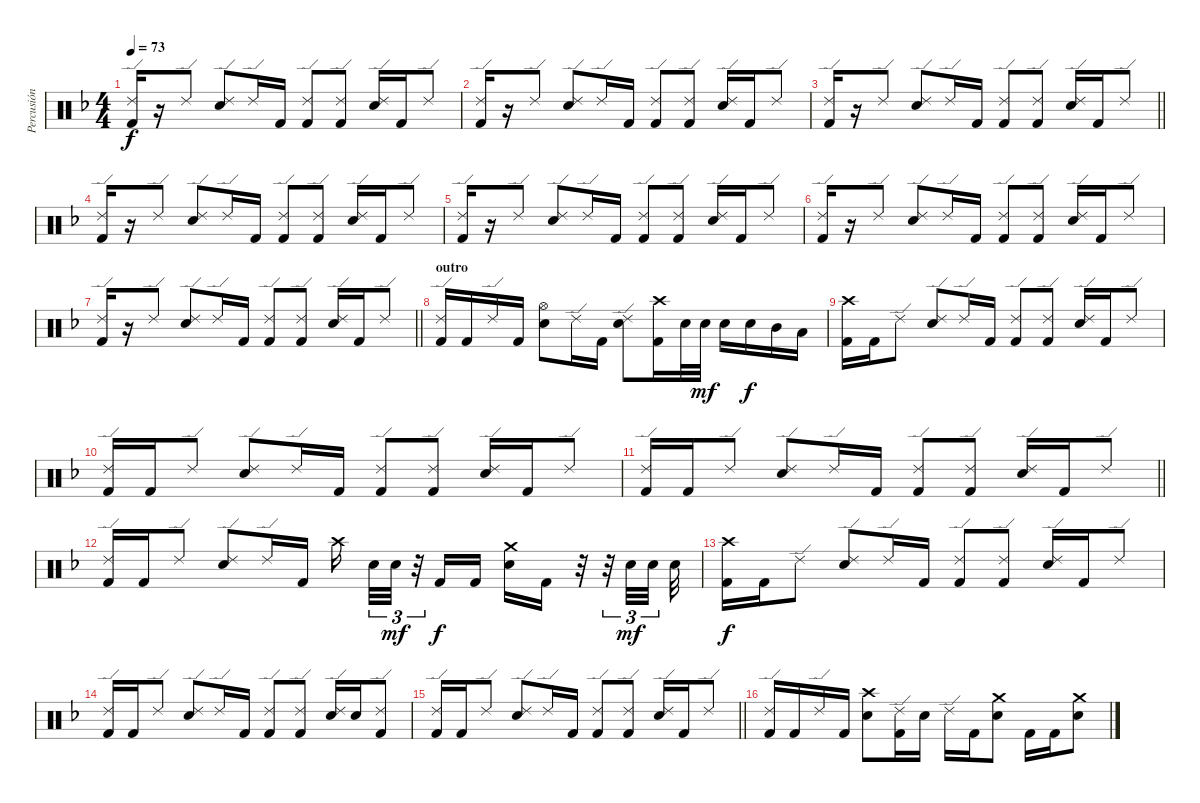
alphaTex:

\track ("Percusión" "Percusión") {instrument percussion}
\staff {score}
\articulation defaults
\ts (4 4)
\tempo 73
\clef neutral
\ks f
("Ride (edge) 2" "Kick (hit) 2").16{dy f} r.16 "Ride (edge) 2".8 ("Ride (edge) 2" "Snare (hit) 2").8 "Ride (edge) 2".16 "Kick (hit) 2".16 ("Ride (edge) 2" "Kick (hit) 2").8 ("Ride (edge) 2" "Kick (hit) 2").8 ("Ride (edge) 2" "Snare (hit) 2").16 "Kick (hit) 2".16 "Ride (edge) 2".8 |
("Ride (edge) 2" "Kick (hit) 2").16 r.16 "Ride (edge) 2".8 ("Ride (edge) 2" "Snare (hit) 2").8 "Ride (edge) 2".16 "Kick (hit) 2".16 ("Ride (edge) 2" "Kick (hit) 2").8 ("Ride (edge) 2" "Kick (hit) 2").8 ("Ride (edge) 2" "Snare (hit) 2").16 "Kick (hit) 2".16 "Ride (edge) 2".8 |
\barLineRight lightlight
("Ride (edge) 2" "Kick (hit) 2").16 r.16 "Ride (edge) 2".8 ("Ride (edge) 2" "Snare (hit) 2").8 "Ride (edge) 2".16 "Kick (hit) 2".16 ("Ride (edge) 2" "Kick (hit) 2").8 ("Ride (edge) 2" "Kick (hit) 2").8 ("Ride (edge) 2" "Snare (hit) 2").16 "Kick (hit) 2".16 "Ride (edge) 2".8 |
("Ride (edge) 2" "Kick (hit) 2").16 r.16 "Ride (edge) 2".8 ("Ride (edge) 2" "Snare (hit) 2").8 "Ride (edge) 2".16 "Kick (hit) 2".16 ("Ride (edge) 2" "Kick (hit) 2").8 ("Ride (edge) 2" "Kick (hit) 2").8 ("Ride (edge) 2" "Snare (hit) 2").16 "Kick (hit) 2".16 "Ride (edge) 2".8 |
("Ride (edge) 2" "Kick (hit) 2").16 r.16 "Ride (edge) 2".8 ("Ride (edge) 2" "Snare (hit) 2").8 "Ride (edge) 2".16 "Kick (hit) 2".16 ("Ride (edge) 2" "Kick (hit) 2").8 ("Ride (edge) 2" "Kick (hit) 2").8 ("Ride (edge) 2" "Snare (hit) 2").16 "Kick (hit) 2".16 "Ride (edge) 2".8 |
("Ride (edge) 2" "Kick (hit) 2").16 r.16 "Ride (edge) 2".8 ("Ride (edge) 2" "Snare (hit) 2").8 "Ride (edge) 2".16 "Kick (hit) 2".16 ("Ride (edge) 2" "Kick (hit) 2").8 ("Ride (edge) 2" "Kick (hit) 2").8 ("Ride (edge) 2" "Snare (hit) 2").16 "Kick (hit) 2".16 "Ride (edge) 2".8 |
\barLineRight lightlight
("Ride (edge) 2" "Kick (hit) 2").16 r.16 "Ride (edge) 2".8 ("Ride (edge) 2" "Snare (hit) 2").8 "Ride (edge) 2".16 "Kick (hit) 2".16 ("Ride (edge) 2" "Kick (hit) 2").8 ("Ride (edge) 2" "Kick (hit) 2").8 ("Ride (edge) 2" "Snare (hit) 2").16 "Kick (hit) 2".16 "Ride (edge) 2".8 |
\section ("" "outro")
("Ride (edge) 2" "Kick (hit) 2").16 "Kick (hit) 2".16 "Ride (edge) 2".16 "Kick (hit) 2".16 ("Hi-Hat (open)" "Snare (hit) 2").8 "Ride (edge) 2".16 "Kick (hit) 2".16 ("Ride (edge) 2" "Snare (hit) 2").8 ("Crash high (hit)" "Kick (hit) 2").16 "Snare (hit) 2".32 "Snare (hit) 2".32{dy mf} "Snare (hit) 2".16 "Snare (hit) 2".16{dy f} "Mid Tom (hit)".16 "Low Tom (hit)".16 |
("Crash high (hit)" "Kick (hit) 2").16 "Kick (hit) 2".16 "Ride (edge) 2".8 ("Ride (edge) 2" "Snare (hit) 2").8 "Ride (edge) 2".16 "Kick (hit) 2".16 ("Ride (edge) 2" "Kick (hit) 2").8 ("Ride (edge) 2" "Kick (hit) 2").8 ("Ride (edge) 2" "Snare (hit) 2").16 "Kick (hit) 2".16 "Ride (edge) 2".8 |
("Ride (edge) 2" "Kick (hit) 2").16 "Kick (hit) 2".16 "Ride (edge) 2".8 ("Ride (edge) 2" "Snare (hit) 2").8 "Ride (edge) 2".16 "Kick (hit) 2".16 ("Ride (edge) 2" "Kick (hit) 2").8 ("Ride (edge) 2" "Kick (hit) 2").8 ("Ride (edge) 2" "Snare (hit) 2").16 "Kick (hit) 2".16 "Ride (edge) 2".8 |
\barLineRight lightlight
("Ride (edge) 2" "Kick (hit) 2").16 "Kick (hit) 2".16 "Ride (edge) 2".8 ("Ride (edge) 2" "Snare (hit) 2").8 "Ride (edge) 2".16 "Kick (hit) 2".16 ("Ride (edge) 2" "Kick (hit) 2").8 ("Ride (edge) 2" "Kick (hit) 2").8 ("Ride (edge) 2" "Snare (hit) 2").16 "Kick (hit) 2".16 "Ride (edge) 2".8 |
("Ride (edge) 2" "Kick (hit) 2").16 "Kick (hit) 2".16 "Ride (edge) 2".8 ("Ride (edge) 2" "Snare (hit) 2").8 "Ride (edge) 2".16 "Kick (hit) 2".16 "Crash high (hit)".16{beam splitsecondary} "Snare (hit) 2".32{tu (3 2)} "Snare (hit) 2".32{tu (3 2) dy mf} r.32{tu (3 2)} "Kick (hit) 2".16{dy f} "Kick (hit) 2".16 ("Crash medium (hit)" "Snare (hit) 2").16 "Kick (hit) 2".16 r.32 r.32{tu (3 2)} "Snare (hit) 2".32{tu (3 2) dy mf} "Snare (hit) 2".32{tu (3 2) beam splitsecondary} "Snare (hit) 2".32 |
("Crash high (hit)" "Kick (hit) 2").16{dy f} "Kick (hit) 2".16 "Ride (edge) 2".8 ("Ride (edge) 2" "Snare (hit) 2").8 "Ride (edge) 2".16 "Kick (hit) 2".16 ("Ride (edge) 2" "Kick (hit) 2").8 ("Ride (edge) 2" "Kick (hit) 2").8 ("Ride (edge) 2" "Snare (hit) 2").16 "Kick (hit) 2".16 "Ride (edge) 2".8 |
("Ride (edge) 2" "Kick (hit) 2").16 "Kick (hit) 2".16 "Ride (edge) 2".8 ("Ride (edge) 2" "Snare (hit) 2").8 "Ride (edge) 2".16 "Kick (hit) 2".16 ("Ride (edge) 2" "Kick (hit) 2").8 ("Ride (edge) 2" "Kick (hit) 2").8 ("Ride (edge) 2" "Snare (hit) 2").16 "Snare (hit) 2".16 ("Ride (edge) 2" "Kick (hit) 2").8 |
\barLineRight lightlight
("Ride (edge) 2" "Kick (hit) 2").16 "Kick (hit) 2".16 "Ride (edge) 2".8 ("Ride (edge) 2" "Snare (hit) 2").8 "Ride (edge) 2".16 "Kick (hit) 2".16 ("Ride (edge) 2" "Kick (hit) 2").8 ("Ride (edge) 2" "Kick (hit) 2").8 ("Ride (edge) 2" "Snare (hit) 2").16 "Kick (hit) 2".16 "Ride (edge) 2".8 |
("Ride (edge) 2" "Kick (hit) 2").16 "Kick (hit) 2".16 "Ride (edge) 2".16 "Kick (hit) 2".16 ("Crash high (hit)" "Snare (hit) 2").8 ("Ride (edge) 2" "Kick (hit) 2").16 "Snare (hit) 2".16 "Ride (edge) 2".16 "Kick (hit) 2".16 ("Crash medium (hit)" "Snare (hit) 2").8 "Kick (hit) 2".16 "Kick (hit) 2".16 ("Crash medium (hit)" "Snare (hit) 2").8
